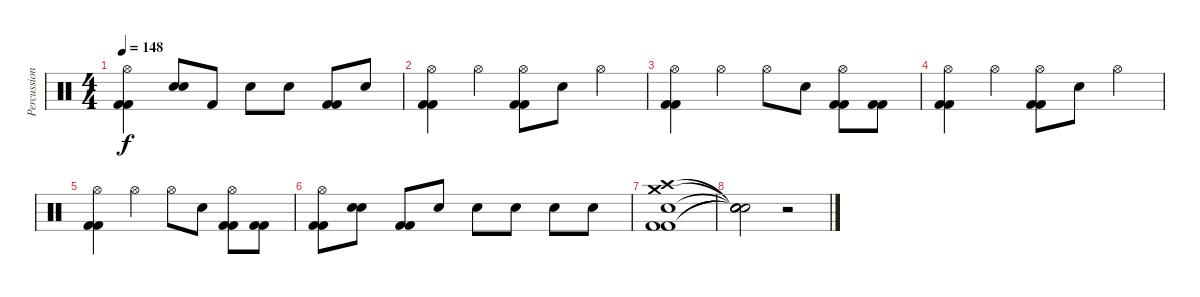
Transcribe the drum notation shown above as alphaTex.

\track ("Percussion" "Percussion") {instrument percussion}
\staff {score}
\articulation defaults
\ts (4 4)
\tempo 148
\clef neutral
\ks c
("Hi-Hat (open)" "Kick (hit) 2" "Kick (hit) 2").4{dy f} ("Electric Snare (hit)" "Electric Snare (hit)").8{bd 240} "Kick (hit) 2".8 "Electric Snare (hit)".8 "Electric Snare (hit)".8 ("Kick (hit) 2" "Kick (hit) 2").8 "Electric Snare (hit)".8 |
("Hi-Hat (open)" "Kick (hit) 2" "Kick (hit) 2").4 "Hi-Hat (open)".4 ("Hi-Hat (open)" "Kick (hit) 2" "Kick (hit) 2").8 "Snare (hit) 2".8 "Hi-Hat (open)".4 |
("Hi-Hat (open)" "Kick (hit) 2" "Kick (hit) 2").4 "Hi-Hat (open)".4 "Hi-Hat (open)".8 "Snare (hit) 2".8 ("Hi-Hat (open)" "Kick (hit) 2" "Kick (hit) 2").8 ("Kick (hit) 2" "Kick (hit) 2").8 |
("Hi-Hat (open)" "Kick (hit) 2" "Kick (hit) 2").4 "Hi-Hat (open)".4 ("Hi-Hat (open)" "Kick (hit) 2" "Kick (hit) 2").8 "Snare (hit) 2".8 "Hi-Hat (open)".4 |
("Hi-Hat (open)" "Kick (hit) 2" "Kick (hit) 2").4 "Hi-Hat (open)".4 "Hi-Hat (open)".8 "Snare (hit) 2".8 ("Hi-Hat (open)" "Kick (hit) 2" "Kick (hit) 2").8 ("Kick (hit) 2" "Kick (hit) 2").8 |
("Hi-Hat (open)" "Kick (hit) 2" "Kick (hit) 2").8 ("Electric Snare (hit)" "Electric Snare (hit)").8{bd 240} ("Kick (hit) 2" "Kick (hit) 2").8 "Electric Snare (hit)".8 "Electric Snare (hit)".8 "Electric Snare (hit)".8 "Electric Snare (hit)".8 "Electric Snare (hit)".8 |
("Crash medium (hit)" "Crash high (hit)" "Snare (hit) 2" "Kick (hit) 2" "Kick (hit) 2").1 |
("Snare (hit)"{t} "Snare (hit)"{t} "Snare (hit)"{t} "Snare (hit)"{t} "Snare (hit)"{t}).2 r.2
